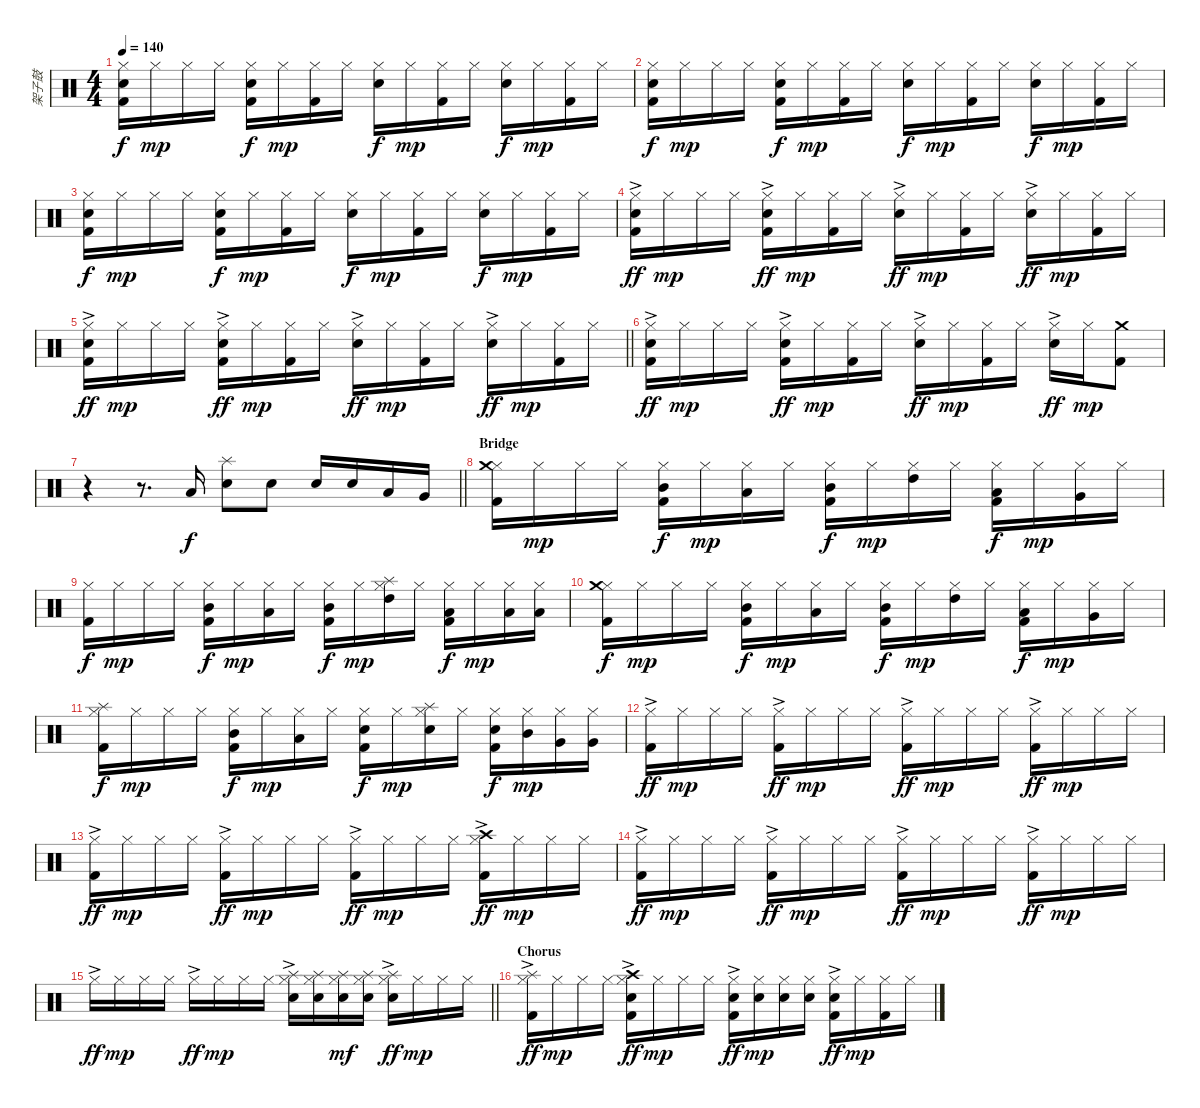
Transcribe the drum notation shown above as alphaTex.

\track ("架子鼓" "架子鼓") {instrument percussion}
\staff {score}
\articulation defaults
\ts (4 4)
\tempo 140
\clef neutral
\ks c
("Hi-Hat (closed)" "Electric Snare (hit)" "Kick (hit) 2").16{dy f} "Hi-Hat (closed)".16{dy mp} "Hi-Hat (closed)".16 "Hi-Hat (closed)".16 ("Hi-Hat (closed)" "Electric Snare (hit)" "Kick (hit) 2").16{dy f} "Hi-Hat (closed)".16{dy mp} ("Hi-Hat (closed)" "Kick (hit) 2").16 "Hi-Hat (closed)".16 ("Hi-Hat (closed)" "Electric Snare (hit)").16{dy f} "Hi-Hat (closed)".16{dy mp} ("Hi-Hat (closed)" "Kick (hit) 2").16 "Hi-Hat (closed)".16 ("Hi-Hat (closed)" "Electric Snare (hit)").16{dy f} "Hi-Hat (closed)".16{dy mp} ("Hi-Hat (closed)" "Kick (hit) 2").16 "Hi-Hat (closed)".16 |
("Hi-Hat (closed)" "Electric Snare (hit)" "Kick (hit) 2").16{dy f} "Hi-Hat (closed)".16{dy mp} "Hi-Hat (closed)".16 "Hi-Hat (closed)".16 ("Hi-Hat (closed)" "Electric Snare (hit)" "Kick (hit) 2").16{dy f} "Hi-Hat (closed)".16{dy mp} ("Hi-Hat (closed)" "Kick (hit) 2").16 "Hi-Hat (closed)".16 ("Hi-Hat (closed)" "Electric Snare (hit)").16{dy f} "Hi-Hat (closed)".16{dy mp} ("Hi-Hat (closed)" "Kick (hit) 2").16 "Hi-Hat (closed)".16 ("Hi-Hat (closed)" "Electric Snare (hit)").16{dy f} "Hi-Hat (closed)".16{dy mp} ("Hi-Hat (closed)" "Kick (hit) 2").16 "Hi-Hat (closed)".16 |
("Hi-Hat (closed)" "Electric Snare (hit)" "Kick (hit) 2").16{dy f} "Hi-Hat (closed)".16{dy mp} "Hi-Hat (closed)".16 "Hi-Hat (closed)".16 ("Hi-Hat (closed)" "Electric Snare (hit)" "Kick (hit) 2").16{dy f} "Hi-Hat (closed)".16{dy mp} ("Hi-Hat (closed)" "Kick (hit) 2").16 "Hi-Hat (closed)".16 ("Hi-Hat (closed)" "Electric Snare (hit)").16{dy f} "Hi-Hat (closed)".16{dy mp} ("Hi-Hat (closed)" "Kick (hit) 2").16 "Hi-Hat (closed)".16 ("Hi-Hat (closed)" "Electric Snare (hit)").16{dy f} "Hi-Hat (closed)".16{dy mp} ("Hi-Hat (closed)" "Kick (hit) 2").16 "Hi-Hat (closed)".16 |
("Hi-Hat (closed)"{ac} "Electric Snare (hit)" "Kick (hit) 2").16{dy ff} "Hi-Hat (closed)".16{dy mp} "Hi-Hat (closed)".16 "Hi-Hat (closed)".16 ("Hi-Hat (closed)"{ac} "Electric Snare (hit)" "Kick (hit) 2").16{dy ff} "Hi-Hat (closed)".16{dy mp} ("Hi-Hat (closed)" "Kick (hit) 2").16 "Hi-Hat (closed)".16 ("Hi-Hat (closed)"{ac} "Electric Snare (hit)").16{dy ff} "Hi-Hat (closed)".16{dy mp} ("Hi-Hat (closed)" "Kick (hit) 2").16 "Hi-Hat (closed)".16 ("Hi-Hat (closed)"{ac} "Electric Snare (hit)").16{dy ff} "Hi-Hat (closed)".16{dy mp} ("Hi-Hat (closed)" "Kick (hit) 2").16 "Hi-Hat (closed)".16 |
\barLineRight lightlight
("Hi-Hat (closed)"{ac} "Electric Snare (hit)" "Kick (hit) 2").16{dy ff} "Hi-Hat (closed)".16{dy mp} "Hi-Hat (closed)".16 "Hi-Hat (closed)".16 ("Hi-Hat (closed)"{ac} "Electric Snare (hit)" "Kick (hit) 2").16{dy ff} "Hi-Hat (closed)".16{dy mp} ("Hi-Hat (closed)" "Kick (hit) 2").16 "Hi-Hat (closed)".16 ("Hi-Hat (closed)"{ac} "Electric Snare (hit)").16{dy ff} "Hi-Hat (closed)".16{dy mp} ("Hi-Hat (closed)" "Kick (hit) 2").16 "Hi-Hat (closed)".16 ("Hi-Hat (closed)"{ac} "Electric Snare (hit)").16{dy ff} "Hi-Hat (closed)".16{dy mp} ("Hi-Hat (closed)" "Kick (hit) 2").16 "Hi-Hat (closed)".16 |
("Hi-Hat (closed)"{ac} "Electric Snare (hit)" "Kick (hit) 2").16{dy ff} "Hi-Hat (closed)".16{dy mp} "Hi-Hat (closed)".16 "Hi-Hat (closed)".16 ("Hi-Hat (closed)"{ac} "Electric Snare (hit)" "Kick (hit) 2").16{dy ff} "Hi-Hat (closed)".16{dy mp} ("Hi-Hat (closed)" "Kick (hit) 2").16 "Hi-Hat (closed)".16 ("Hi-Hat (closed)"{ac} "Electric Snare (hit)").16{dy ff} "Hi-Hat (closed)".16{dy mp} ("Hi-Hat (closed)" "Kick (hit) 2").16 "Hi-Hat (closed)".16 ("Hi-Hat (closed)"{ac} "Electric Snare (hit)").16{dy ff} "Hi-Hat (closed)".16{dy mp} ("Crash medium (hit)" "Kick (hit) 2").8 |
\barLineRight lightlight
r.4 r.8{d} "Low Tom (hit)".16{dy f} ("Splash (hit)" "Electric Snare (hit)").8 "Electric Snare (hit)".8 "Electric Snare (hit)".16 "Electric Snare (hit)".16 "Low Tom (hit)".16 "Very Low Tom (hit)".16 |
\section ("" "Bridge")
("Hi-Hat (closed)" "Crash medium (hit)" "Kick (hit) 2").16 "Hi-Hat (closed)".16{dy mp} "Hi-Hat (closed)".16 "Hi-Hat (closed)".16 ("Hi-Hat (closed)" "Mid Tom (hit)" "Kick (hit) 2").16{dy f} "Hi-Hat (closed)".16{dy mp} ("Hi-Hat (closed)" "Low Tom (hit)").16 "Hi-Hat (closed)".16 ("Hi-Hat (closed)" "Mid Tom (hit)" "Kick (hit) 2").16{dy f} "Hi-Hat (closed)".16{dy mp} ("Hi-Hat (closed)" "High Tom (hit)").16 "Hi-Hat (closed)".16 ("Hi-Hat (closed)" "Low Tom (hit)" "Kick (hit) 2").16{dy f} "Hi-Hat (closed)".16{dy mp} ("Hi-Hat (closed)" "Very Low Tom (hit)").16 "Hi-Hat (closed)".16 |
("Hi-Hat (closed)" "Kick (hit) 2").16{dy f} "Hi-Hat (closed)".16{dy mp} "Hi-Hat (closed)".16 "Hi-Hat (closed)".16 ("Hi-Hat (closed)" "Mid Tom (hit)" "Kick (hit) 2").16{dy f} "Hi-Hat (closed)".16{dy mp} ("Hi-Hat (closed)" "Low Tom (hit)").16 "Hi-Hat (closed)".16 ("Hi-Hat (closed)" "Mid Tom (hit)" "Kick (hit) 2").16{dy f} "Hi-Hat (closed)".16{dy mp} ("Hi-Hat (closed)" "High Tom (hit)" "Splash (hit)").16 "Hi-Hat (closed)".16 ("Hi-Hat (closed)" "Low Tom (hit)" "Kick (hit) 2").16{dy f} "Hi-Hat (closed)".16{dy mp} ("Hi-Hat (closed)" "Low Tom (hit)").16 ("Hi-Hat (closed)" "Low Floor Tom (hit)").16 |
("Hi-Hat (closed)" "Crash medium (hit)" "Kick (hit) 2").16{dy f} "Hi-Hat (closed)".16{dy mp} "Hi-Hat (closed)".16 "Hi-Hat (closed)".16 ("Hi-Hat (closed)" "Mid Tom (hit)" "Kick (hit) 2").16{dy f} "Hi-Hat (closed)".16{dy mp} ("Hi-Hat (closed)" "Low Tom (hit)").16 "Hi-Hat (closed)".16 ("Hi-Hat (closed)" "Mid Tom (hit)" "Kick (hit) 2").16{dy f} "Hi-Hat (closed)".16{dy mp} ("Hi-Hat (closed)" "High Tom (hit)").16 "Hi-Hat (closed)".16 ("Hi-Hat (closed)" "Low Tom (hit)" "Kick (hit) 2").16{dy f} "Hi-Hat (closed)".16{dy mp} ("Hi-Hat (closed)" "Very Low Tom (hit)").16 "Hi-Hat (closed)".16 |
("Hi-Hat (closed)" "Splash (hit)" "Kick (hit) 2").16{dy f} "Hi-Hat (closed)".16{dy mp} "Hi-Hat (closed)".16 "Hi-Hat (closed)".16 ("Hi-Hat (closed)" "Mid Tom (hit)" "Kick (hit) 2").16{dy f} "Hi-Hat (closed)".16{dy mp} ("Hi-Hat (closed)" "Low Tom (hit)").16 "Hi-Hat (closed)".16 ("Hi-Hat (closed)" "Electric Snare (hit)" "Kick (hit) 2").16{dy f} "Hi-Hat (closed)".16{dy mp} ("Hi-Hat (closed)" "Electric Snare (hit)" "Splash (hit)").16 "Hi-Hat (closed)".16 ("Hi-Hat (closed)" "Electric Snare (hit)" "Kick (hit) 2").16{dy f} ("Hi-Hat (closed)" "Mid Tom (hit)").16{dy mp} ("Hi-Hat (closed)" "Very Low Tom (hit)").16 ("Hi-Hat (closed)" "Very Low Tom (hit)").16 |
("Hi-Hat (closed)"{ac} "Kick (hit) 2").16{dy ff} "Hi-Hat (closed)".16{dy mp} "Hi-Hat (closed)".16 "Hi-Hat (closed)".16 ("Hi-Hat (closed)"{ac} "Kick (hit) 2").16{dy ff} "Hi-Hat (closed)".16{dy mp} "Hi-Hat (closed)".16 "Hi-Hat (closed)".16 ("Hi-Hat (closed)"{ac} "Kick (hit) 2").16{dy ff} "Hi-Hat (closed)".16{dy mp} "Hi-Hat (closed)".16 "Hi-Hat (closed)".16 ("Hi-Hat (closed)"{ac} "Kick (hit) 2").16{dy ff} "Hi-Hat (closed)".16{dy mp} "Hi-Hat (closed)".16 "Hi-Hat (closed)".16 |
("Hi-Hat (closed)"{ac} "Kick (hit) 2").16{dy ff} "Hi-Hat (closed)".16{dy mp} "Hi-Hat (closed)".16 "Hi-Hat (closed)".16 ("Hi-Hat (closed)"{ac} "Kick (hit) 2").16{dy ff} "Hi-Hat (closed)".16{dy mp} "Hi-Hat (closed)".16 "Hi-Hat (closed)".16 ("Hi-Hat (closed)"{ac} "Kick (hit) 2").16{dy ff} "Hi-Hat (closed)".16{dy mp} "Hi-Hat (closed)".16 "Hi-Hat (closed)".16 ("Hi-Hat (closed)"{ac} "Crash high (hit)" "Kick (hit) 2").16{dy ff} "Hi-Hat (closed)".16{dy mp} "Hi-Hat (closed)".16 "Hi-Hat (closed)".16 |
("Hi-Hat (closed)"{ac} "Kick (hit) 2").16{dy ff} "Hi-Hat (closed)".16{dy mp} "Hi-Hat (closed)".16 "Hi-Hat (closed)".16 ("Hi-Hat (closed)"{ac} "Kick (hit) 2").16{dy ff} "Hi-Hat (closed)".16{dy mp} "Hi-Hat (closed)".16 "Hi-Hat (closed)".16 ("Hi-Hat (closed)"{ac} "Kick (hit) 2").16{dy ff} "Hi-Hat (closed)".16{dy mp} "Hi-Hat (closed)".16 "Hi-Hat (closed)".16 ("Hi-Hat (closed)"{ac} "Kick (hit) 2").16{dy ff} "Hi-Hat (closed)".16{dy mp} "Hi-Hat (closed)".16 "Hi-Hat (closed)".16 |
\barLineRight lightlight "Hi-Hat (closed)"{ac}.16{dy ff} "Hi-Hat (closed)".16{dy mp} "Hi-Hat (closed)".16 "Hi-Hat (closed)".16 "Hi-Hat (closed)"{ac}.16{dy ff} "Hi-Hat (closed)".16{dy mp} "Hi-Hat (closed)".16 "Hi-Hat (closed)".16
("Hi-Hat (closed)"{ac} "Electric Snare (hit)" "Splash (hit)").16 ("Hi-Hat (closed)" "Electric Snare (hit)" "Splash (hit)").16 ("Hi-Hat (closed)" "Electric Snare (hit)" "Splash (hit)").16{dy mf} ("Hi-Hat (closed)" "Electric Snare (hit)" "Splash (hit)").16 ("Hi-Hat (closed)"{ac} "Electric Snare (hit)" "Splash (hit)").16{dy ff} "Hi-Hat (closed)".16{dy mp} "Hi-Hat (closed)".16 "Hi-Hat (closed)".16 |
\section ("" "Chorus")
("Hi-Hat (closed)"{ac} "Splash (hit)" "Kick (hit) 2").16{dy ff} "Hi-Hat (closed)".16{dy mp} "Hi-Hat (closed)".16 "Hi-Hat (closed)".16 ("Hi-Hat (closed)"{ac} "Electric Snare (hit)" "Crash high (hit)" "Kick (hit) 2").16{dy ff} "Hi-Hat (closed)".16{dy mp} "Hi-Hat (closed)".16 "Hi-Hat (closed)".16 ("Hi-Hat (closed)"{ac} "Electric Snare (hit)" "Kick (hit) 2").16{dy ff} ("Hi-Hat (closed)" "Electric Snare (hit)").16{dy mp} ("Hi-Hat (closed)" "Electric Snare (hit)").16 ("Hi-Hat (closed)" "Electric Snare (hit)").16 ("Hi-Hat (closed)"{ac} "Electric Snare (hit)" "Kick (hit) 2").16{dy ff} "Hi-Hat (closed)".16{dy mp} ("Hi-Hat (closed)" "Kick (hit) 2").16 "Hi-Hat (closed)".16
